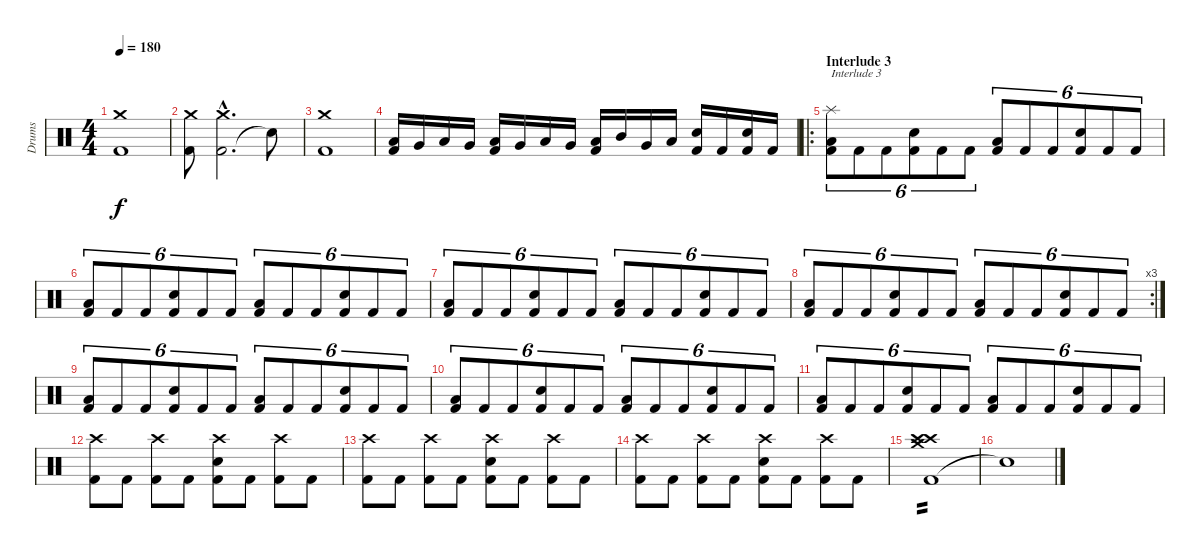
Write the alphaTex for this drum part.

\track ("Drums" "Drums") {instrument percussion}
\staff {score}
\articulation defaults
\ts (4 4)
\tempo 180
\clef neutral
\ks c
("Kick (hit) 2" "Crash medium (hit)").1{dy f} |
("Kick (hit) 2" "Crash medium (hit)").8 ("Kick (hit) 2"{hac} "Crash medium (hit)"{hac}).2{d} "Snare (hit)"{t}.8 |
("Kick (hit) 2" "Crash medium (hit)").1 |
("Kick (hit) 2" "Low Tom (hit)").16 "Very Low Tom (hit)".16 "Low Tom (hit)".16 "Very Low Tom (hit)".16 ("Kick (hit) 2" "Low Tom (hit)").16 "Very Low Tom (hit)".16 "Low Tom (hit)".16 "Very Low Tom (hit)".16 ("Kick (hit) 2" "Low Tom (hit)").16 "Mid Tom (hit)".16 "Very Low Tom (hit)".16 "Low Tom (hit)".16 ("Kick (hit) 2" "Snare (hit) 2").16 "Kick (hit) 2".16 ("Kick (hit) 2" "Snare (hit) 2").16 "Kick (hit) 2".16 |
\ro
\section ("" "Interlude 3")
("Kick (hit) 2" "Low Tom (hit)" "Splash (hit)").8{tu (6 4) txt "Interlude 3"} "Kick (hit) 2".8{tu (6 4)} "Kick (hit) 2".8{tu (6 4)} ("Kick (hit) 2" "Snare (hit) 2").8{tu (6 4)} "Kick (hit) 2".8{tu (6 4)} "Kick (hit) 2".8{tu (6 4)} ("Kick (hit) 2" "Low Tom (hit)").8{tu (6 4)} "Kick (hit) 2".8{tu (6 4)} "Kick (hit) 2".8{tu (6 4)} ("Kick (hit) 2" "Snare (hit) 2").8{tu (6 4)} "Kick (hit) 2".8{tu (6 4)} "Kick (hit) 2".8{tu (6 4)} |
("Kick (hit) 2" "Low Tom (hit)").8{tu (6 4)} "Kick (hit) 2".8{tu (6 4)} "Kick (hit) 2".8{tu (6 4)} ("Kick (hit) 2" "Snare (hit) 2").8{tu (6 4)} "Kick (hit) 2".8{tu (6 4)} "Kick (hit) 2".8{tu (6 4)} ("Kick (hit) 2" "Low Tom (hit)").8{tu (6 4)} "Kick (hit) 2".8{tu (6 4)} "Kick (hit) 2".8{tu (6 4)} ("Kick (hit) 2" "Snare (hit) 2").8{tu (6 4)} "Kick (hit) 2".8{tu (6 4)} "Kick (hit) 2".8{tu (6 4)} |
("Kick (hit) 2" "Low Tom (hit)").8{tu (6 4)} "Kick (hit) 2".8{tu (6 4)} "Kick (hit) 2".8{tu (6 4)} ("Kick (hit) 2" "Snare (hit) 2").8{tu (6 4)} "Kick (hit) 2".8{tu (6 4)} "Kick (hit) 2".8{tu (6 4)} ("Kick (hit) 2" "Low Tom (hit)").8{tu (6 4)} "Kick (hit) 2".8{tu (6 4)} "Kick (hit) 2".8{tu (6 4)} ("Kick (hit) 2" "Snare (hit) 2").8{tu (6 4)} "Kick (hit) 2".8{tu (6 4)} "Kick (hit) 2".8{tu (6 4)} |
\rc 3
("Kick (hit) 2" "Low Tom (hit)").8{tu (6 4)} "Kick (hit) 2".8{tu (6 4)} "Kick (hit) 2".8{tu (6 4)} ("Kick (hit) 2" "Snare (hit) 2").8{tu (6 4)} "Kick (hit) 2".8{tu (6 4)} "Kick (hit) 2".8{tu (6 4)} ("Kick (hit) 2" "Low Tom (hit)").8{tu (6 4)} "Kick (hit) 2".8{tu (6 4)} "Kick (hit) 2".8{tu (6 4)} ("Kick (hit) 2" "Snare (hit) 2").8{tu (6 4)} "Kick (hit) 2".8{tu (6 4)} "Kick (hit) 2".8{tu (6 4)} |
("Kick (hit) 2" "Low Tom (hit)").8{tu (6 4)} "Kick (hit) 2".8{tu (6 4)} "Kick (hit) 2".8{tu (6 4)} ("Kick (hit) 2" "Snare (hit) 2").8{tu (6 4)} "Kick (hit) 2".8{tu (6 4)} "Kick (hit) 2".8{tu (6 4)} ("Kick (hit) 2" "Low Tom (hit)").8{tu (6 4)} "Kick (hit) 2".8{tu (6 4)} "Kick (hit) 2".8{tu (6 4)} ("Kick (hit) 2" "Snare (hit) 2").8{tu (6 4)} "Kick (hit) 2".8{tu (6 4)} "Kick (hit) 2".8{tu (6 4)} |
("Kick (hit) 2" "Low Tom (hit)").8{tu (6 4)} "Kick (hit) 2".8{tu (6 4)} "Kick (hit) 2".8{tu (6 4)} ("Kick (hit) 2" "Snare (hit) 2").8{tu (6 4)} "Kick (hit) 2".8{tu (6 4)} "Kick (hit) 2".8{tu (6 4)} ("Kick (hit) 2" "Low Tom (hit)").8{tu (6 4)} "Kick (hit) 2".8{tu (6 4)} "Kick (hit) 2".8{tu (6 4)} ("Kick (hit) 2" "Snare (hit) 2").8{tu (6 4)} "Kick (hit) 2".8{tu (6 4)} "Kick (hit) 2".8{tu (6 4)} |
("Kick (hit) 2" "Low Tom (hit)").8{tu (6 4)} "Kick (hit) 2".8{tu (6 4)} "Kick (hit) 2".8{tu (6 4)} ("Kick (hit) 2" "Snare (hit) 2").8{tu (6 4)} "Kick (hit) 2".8{tu (6 4)} "Kick (hit) 2".8{tu (6 4)} ("Kick (hit) 2" "Low Tom (hit)").8{tu (6 4)} "Kick (hit) 2".8{tu (6 4)} "Kick (hit) 2".8{tu (6 4)} ("Kick (hit) 2" "Snare (hit) 2").8{tu (6 4)} "Kick (hit) 2".8{tu (6 4)} "Kick (hit) 2".8{tu (6 4)} |
("Kick (hit) 2" "Crash high (hit)").8 "Kick (hit) 2".8 ("Kick (hit) 2" "Crash high (hit)").8 "Kick (hit) 2".8 ("Kick (hit) 2" "Snare (hit) 2" "Crash high (hit)").8 "Kick (hit) 2".8 ("Kick (hit) 2" "Crash high (hit)").8 "Kick (hit) 2".8 |
("Kick (hit) 2" "Crash high (hit)").8 "Kick (hit) 2".8 ("Kick (hit) 2" "Crash high (hit)").8 "Kick (hit) 2".8 ("Kick (hit) 2" "Snare (hit) 2" "Crash high (hit)").8 "Kick (hit) 2".8 ("Kick (hit) 2" "Crash high (hit)").8 "Kick (hit) 2".8 |
("Kick (hit) 2" "Crash high (hit)").8 "Kick (hit) 2".8 ("Kick (hit) 2" "Crash high (hit)").8 "Kick (hit) 2".8 ("Kick (hit) 2" "Snare (hit) 2" "Crash high (hit)").8 "Kick (hit) 2".8 ("Kick (hit) 2" "Crash high (hit)").8 "Kick (hit) 2".8 |
("Kick (hit) 2" "Crash medium (hit)" "Crash high (hit)" "Crash high (hit)").1{tp 2} |
"Snare (hit)"{t}.1
